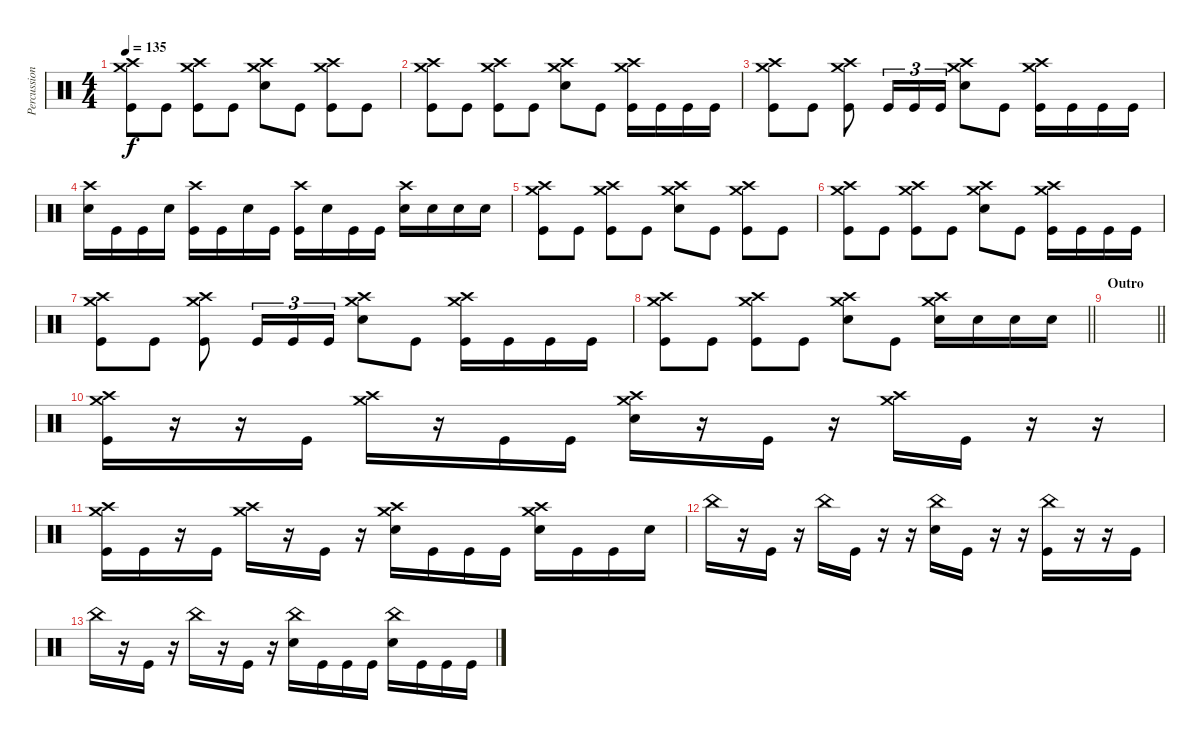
\track ("Percussion (Approx.)" "Percussion") {instrument percussion}
\staff {score}
\articulation defaults
\ts (4 4)
\tempo 135
\clef neutral
\ks c
("Crash medium (hit)" "Crash high (hit)" "Kick (hit)").8{dy f} "Kick (hit)".8 ("Crash medium (hit)" "Crash high (hit)" "Kick (hit)").8 "Kick (hit)".8 ("Crash medium (hit)" "Crash high (hit)" "Electric Snare (hit)").8 "Kick (hit)".8 ("Crash medium (hit)" "Crash high (hit)" "Kick (hit)").8 "Kick (hit)".8 |
("Crash medium (hit)" "Crash high (hit)" "Kick (hit)").8 "Kick (hit)".8 ("Crash medium (hit)" "Crash high (hit)" "Kick (hit)").8 "Kick (hit)".8 ("Crash medium (hit)" "Crash high (hit)" "Electric Snare (hit)").8 "Kick (hit)".8 ("Crash medium (hit)" "Crash high (hit)" "Kick (hit)").16 "Kick (hit)".16 "Kick (hit)".16 "Kick (hit)".16 |
("Crash medium (hit)" "Crash high (hit)" "Kick (hit)").8 "Kick (hit)".8 ("Crash medium (hit)" "Crash high (hit)" "Kick (hit)").8 "Kick (hit)".16{tu (3 2)} "Kick (hit)".16{tu (3 2)} "Kick (hit)".16{tu (3 2)} ("Crash medium (hit)" "Crash high (hit)" "Electric Snare (hit)").8 "Kick (hit)".8 ("Crash medium (hit)" "Crash high (hit)" "Kick (hit)").16 "Kick (hit)".16 "Kick (hit)".16 "Kick (hit)".16 |
("Crash high (hit)" "Electric Snare (hit)").16 "Kick (hit)".16 "Kick (hit)".16 "Electric Snare (hit)".16 ("Crash high (hit)" "Kick (hit)").16 "Kick (hit)".16 "Electric Snare (hit)".16 "Kick (hit)".16 ("Crash high (hit)" "Kick (hit)").16 "Electric Snare (hit)".16 "Kick (hit)".16 "Kick (hit)".16 ("Crash high (hit)" "Electric Snare (hit)").16 "Electric Snare (hit)".16 "Electric Snare (hit)".16 "Electric Snare (hit)".16 |
("Crash medium (hit)" "Crash high (hit)" "Kick (hit)").8 "Kick (hit)".8 ("Crash medium (hit)" "Crash high (hit)" "Kick (hit)").8 "Kick (hit)".8 ("Crash medium (hit)" "Crash high (hit)" "Electric Snare (hit)").8 "Kick (hit)".8 ("Crash medium (hit)" "Crash high (hit)" "Kick (hit)").8 "Kick (hit)".8 |
("Crash medium (hit)" "Crash high (hit)" "Kick (hit)").8 "Kick (hit)".8 ("Crash medium (hit)" "Crash high (hit)" "Kick (hit)").8 "Kick (hit)".8 ("Crash medium (hit)" "Crash high (hit)" "Electric Snare (hit)").8 "Kick (hit)".8 ("Crash medium (hit)" "Crash high (hit)" "Kick (hit)").16 "Kick (hit)".16 "Kick (hit)".16 "Kick (hit)".16 |
("Crash medium (hit)" "Crash high (hit)" "Kick (hit)").8 "Kick (hit)".8 ("Crash medium (hit)" "Crash high (hit)" "Kick (hit)").8 "Kick (hit)".16{tu (3 2)} "Kick (hit)".16{tu (3 2)} "Kick (hit)".16{tu (3 2)} ("Crash medium (hit)" "Crash high (hit)" "Electric Snare (hit)").8 "Kick (hit)".8 ("Crash medium (hit)" "Crash high (hit)" "Kick (hit)").16 "Kick (hit)".16 "Kick (hit)".16 "Kick (hit)".16 |
\barLineRight lightlight
("Crash medium (hit)" "Crash high (hit)" "Kick (hit)").8 "Kick (hit)".8 ("Crash medium (hit)" "Crash high (hit)" "Kick (hit)").8 "Kick (hit)".8 ("Crash medium (hit)" "Crash high (hit)" "Electric Snare (hit)").8 "Kick (hit)".8 ("Crash medium (hit)" "Crash high (hit)" "Electric Snare (hit)").16 "Electric Snare (hit)".16 "Electric Snare (hit)".16 "Electric Snare (hit)".16 |
\section ("" "Outro")
\barLineRight lightlight
|
("Crash medium (hit)" "Crash high (hit)" "Kick (hit)").16{volume 0} r.16 r.16 "Kick (hit)".16 ("Crash medium (hit)" "Crash high (hit)").16 r.16 "Kick (hit)".16 "Kick (hit)".16 ("Crash medium (hit)" "Crash high (hit)" "Electric Snare (hit)").16 r.16 "Kick (hit)".16 r.16 ("Crash medium (hit)" "Crash high (hit)").16 "Kick (hit)".16 r.16 r.16 |
("Crash medium (hit)" "Crash high (hit)" "Kick (hit)").16 "Kick (hit)".16 r.16 "Kick (hit)".16 ("Crash medium (hit)" "Crash high (hit)").16 r.16 "Kick (hit)".16 r.16 ("Crash medium (hit)" "Crash high (hit)" "Electric Snare (hit)").16 "Kick (hit)".16 "Kick (hit)".16 "Kick (hit)".16 ("Crash medium (hit)" "Crash high (hit)" "Electric Snare (hit)").16 "Kick (hit)".16 "Kick (hit)".16 "Electric Snare (hit)".16 |
"China (hit)".16 r.16 "Kick (hit)".16 r.16 "China (hit)".16 "Kick (hit)".16 r.16 r.16 ("China (hit)" "Electric Snare (hit)").16 "Kick (hit)".16 r.16 r.16 ("China (hit)" "Kick (hit)").16 r.16 r.16 "Kick (hit)".16 |
"China (hit)".16 r.16 "Kick (hit)".16 r.16 "China (hit)".16 r.16 "Kick (hit)".16 r.16 ("China (hit)" "Electric Snare (hit)").16 "Kick (hit)".16 "Kick (hit)".16 "Kick (hit)".16 ("China (hit)" "Electric Snare (hit)").16 "Kick (hit)".16 "Kick (hit)".16 "Kick (hit)".16
